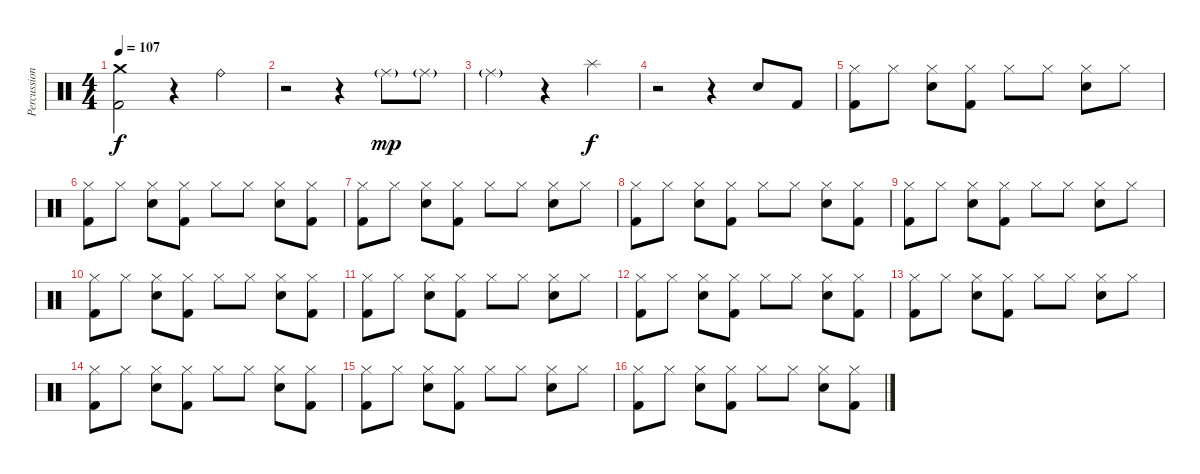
\track ("Percussion" "Percussion") {instrument percussion}
\staff {score}
\articulation defaults
\ts (4 4)
\tempo 107
\clef neutral
\ks c
("Crash medium (hit)" "Kick (hit) 2").2{dy f} r.4 "Ride (bell)".4 |
r.2 r.4 "Ride (middle)"{g}.8{dy mp} "Ride (middle)"{g}.8 |
"Ride (middle)"{g}.2 r.4 "Splash (hit)".4{dy f} |
r.2 r.4 "Electric Snare (hit)".8 "Kick (hit) 2".8 |
("Hi-Hat (closed)" "Kick (hit) 2").8 "Hi-Hat (closed)".8 ("Hi-Hat (closed)" "Electric Snare (hit)").8 ("Hi-Hat (closed)" "Kick (hit) 2").8 "Hi-Hat (closed)".8 "Hi-Hat (closed)".8 ("Hi-Hat (closed)" "Electric Snare (hit)").8 "Hi-Hat (closed)".8 |
("Hi-Hat (closed)" "Kick (hit) 2").8 "Hi-Hat (closed)".8 ("Hi-Hat (closed)" "Electric Snare (hit)").8 ("Hi-Hat (closed)" "Kick (hit) 2").8 "Hi-Hat (closed)".8 "Hi-Hat (closed)".8 ("Hi-Hat (closed)" "Electric Snare (hit)").8 ("Hi-Hat (closed)" "Kick (hit) 2").8 |
("Hi-Hat (closed)" "Kick (hit) 2").8 "Hi-Hat (closed)".8 ("Hi-Hat (closed)" "Electric Snare (hit)").8 ("Hi-Hat (closed)" "Kick (hit) 2").8 "Hi-Hat (closed)".8 "Hi-Hat (closed)".8 ("Hi-Hat (closed)" "Electric Snare (hit)").8 "Hi-Hat (closed)".8 |
("Hi-Hat (closed)" "Kick (hit) 2").8 "Hi-Hat (closed)".8 ("Hi-Hat (closed)" "Electric Snare (hit)").8 ("Hi-Hat (closed)" "Kick (hit) 2").8 "Hi-Hat (closed)".8 "Hi-Hat (closed)".8 ("Hi-Hat (closed)" "Electric Snare (hit)").8 ("Hi-Hat (closed)" "Kick (hit) 2").8 |
("Hi-Hat (closed)" "Kick (hit) 2").8 "Hi-Hat (closed)".8 ("Hi-Hat (closed)" "Electric Snare (hit)").8 ("Hi-Hat (closed)" "Kick (hit) 2").8 "Hi-Hat (closed)".8 "Hi-Hat (closed)".8 ("Hi-Hat (closed)" "Electric Snare (hit)").8 "Hi-Hat (closed)".8 |
("Hi-Hat (closed)" "Kick (hit) 2").8 "Hi-Hat (closed)".8 ("Hi-Hat (closed)" "Electric Snare (hit)").8 ("Hi-Hat (closed)" "Kick (hit) 2").8 "Hi-Hat (closed)".8 "Hi-Hat (closed)".8 ("Hi-Hat (closed)" "Electric Snare (hit)").8 ("Hi-Hat (closed)" "Kick (hit) 2").8 |
("Hi-Hat (closed)" "Kick (hit) 2").8 "Hi-Hat (closed)".8 ("Hi-Hat (closed)" "Electric Snare (hit)").8 ("Hi-Hat (closed)" "Kick (hit) 2").8 "Hi-Hat (closed)".8 "Hi-Hat (closed)".8 ("Hi-Hat (closed)" "Electric Snare (hit)").8 "Hi-Hat (closed)".8 |
("Hi-Hat (closed)" "Kick (hit) 2").8 "Hi-Hat (closed)".8 ("Hi-Hat (closed)" "Electric Snare (hit)").8 ("Hi-Hat (closed)" "Kick (hit) 2").8 "Hi-Hat (closed)".8 "Hi-Hat (closed)".8 ("Hi-Hat (closed)" "Electric Snare (hit)").8 ("Hi-Hat (closed)" "Kick (hit) 2").8 |
("Hi-Hat (closed)" "Kick (hit) 2").8 "Hi-Hat (closed)".8 ("Hi-Hat (closed)" "Electric Snare (hit)").8 ("Hi-Hat (closed)" "Kick (hit) 2").8 "Hi-Hat (closed)".8 "Hi-Hat (closed)".8 ("Hi-Hat (closed)" "Electric Snare (hit)").8 "Hi-Hat (closed)".8 |
("Hi-Hat (closed)" "Kick (hit) 2").8 "Hi-Hat (closed)".8 ("Hi-Hat (closed)" "Electric Snare (hit)").8 ("Hi-Hat (closed)" "Kick (hit) 2").8 "Hi-Hat (closed)".8 "Hi-Hat (closed)".8 ("Hi-Hat (closed)" "Electric Snare (hit)").8 ("Hi-Hat (closed)" "Kick (hit) 2").8 |
("Hi-Hat (closed)" "Kick (hit) 2").8 "Hi-Hat (closed)".8 ("Hi-Hat (closed)" "Electric Snare (hit)").8 ("Hi-Hat (closed)" "Kick (hit) 2").8 "Hi-Hat (closed)".8 "Hi-Hat (closed)".8 ("Hi-Hat (closed)" "Electric Snare (hit)").8 "Hi-Hat (closed)".8 |
("Hi-Hat (closed)" "Kick (hit) 2").8 "Hi-Hat (closed)".8 ("Hi-Hat (closed)" "Electric Snare (hit)").8 ("Hi-Hat (closed)" "Kick (hit) 2").8 "Hi-Hat (closed)".8 "Hi-Hat (closed)".8 ("Hi-Hat (closed)" "Electric Snare (hit)").8 ("Hi-Hat (closed)" "Kick (hit) 2").8
